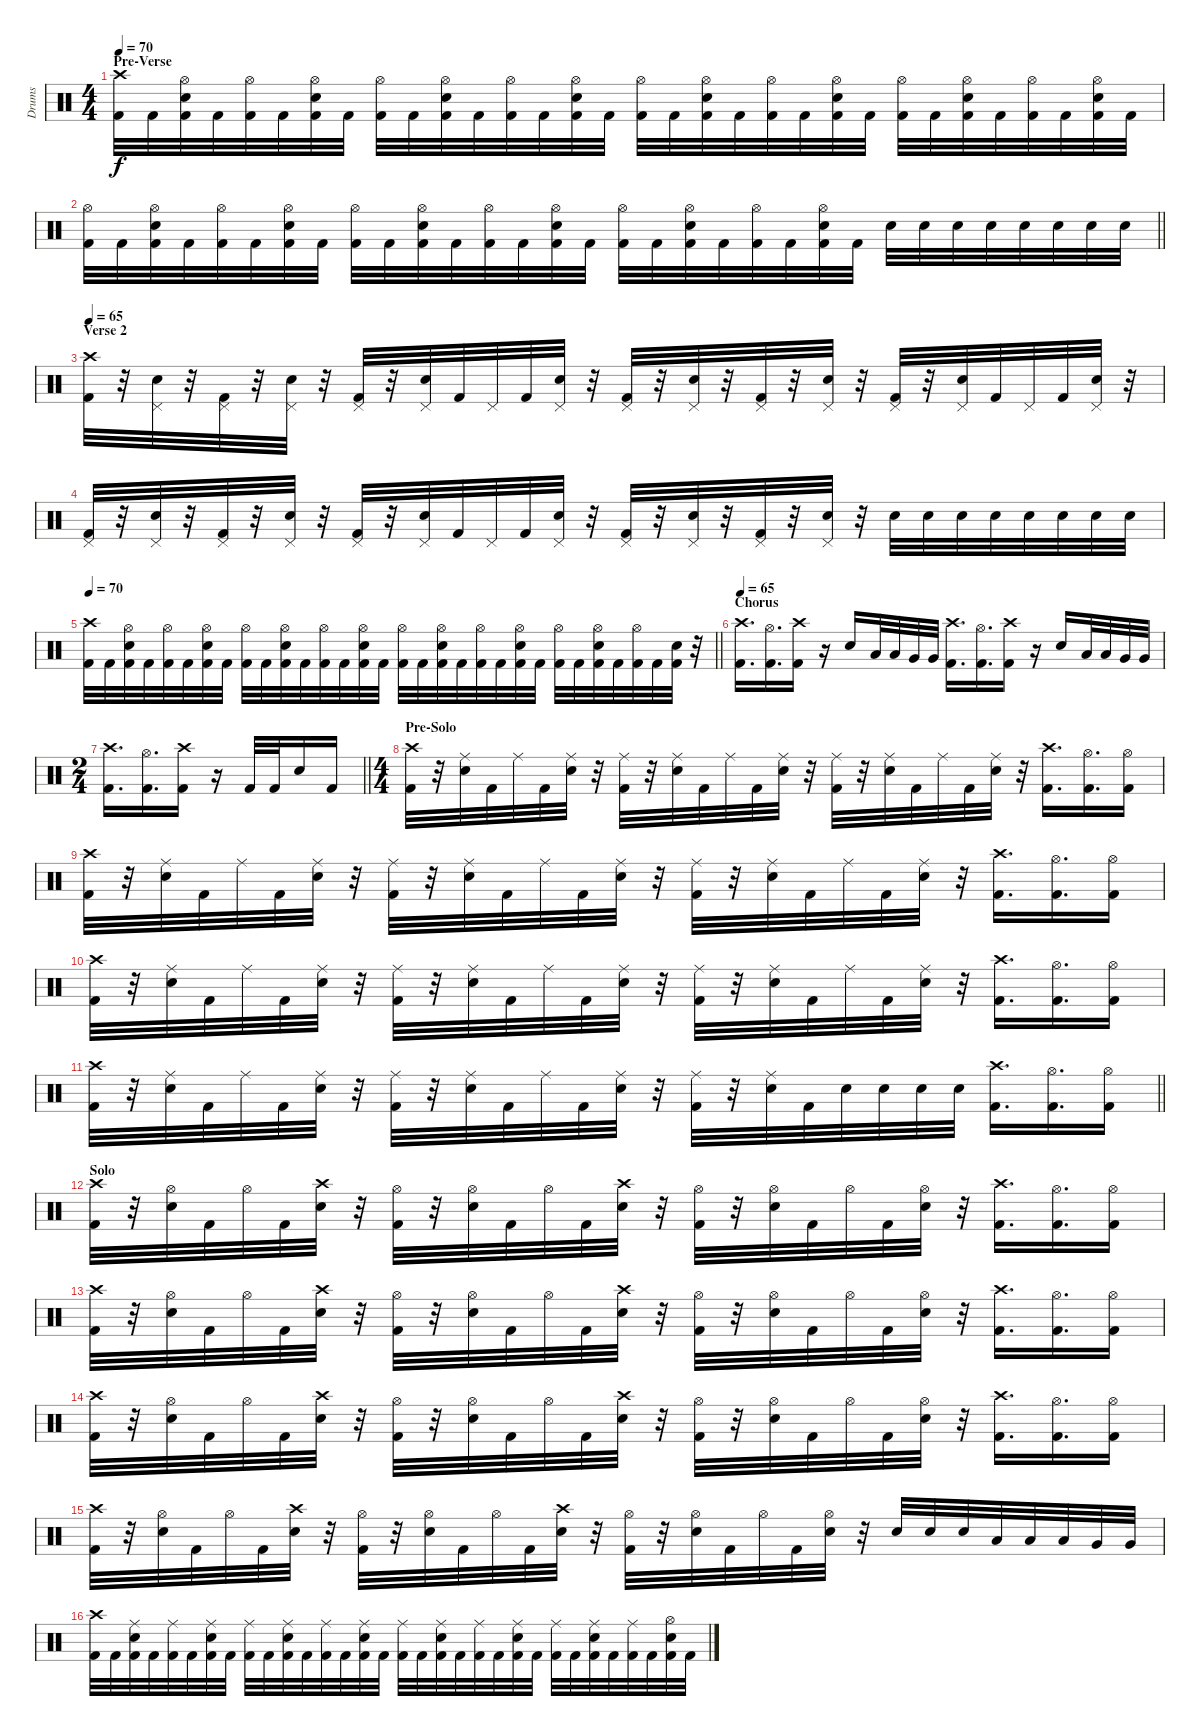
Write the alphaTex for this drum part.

\track ("Drums" "Drums") {instrument percussion}
\staff {score}
\articulation defaults
\ts (4 4)
\section ("" "Pre-Verse")
\tempo 70
\clef neutral
\ks c
("Crash high (hit)" "Kick (hit) 2").32{dy f} "Kick (hit) 2".32 ("Hi-Hat (open)" "Snare (hit) 2" "Kick (hit) 2").32 "Kick (hit) 2".32 ("Hi-Hat (open)" "Kick (hit) 2").32 "Kick (hit) 2".32 ("Hi-Hat (open)" "Snare (hit) 2" "Kick (hit) 2").32 "Kick (hit) 2".32 ("Hi-Hat (open)" "Kick (hit) 2").32 "Kick (hit) 2".32 ("Hi-Hat (open)" "Snare (hit) 2" "Kick (hit) 2").32 "Kick (hit) 2".32 ("Hi-Hat (open)" "Kick (hit) 2").32 "Kick (hit) 2".32 ("Hi-Hat (open)" "Snare (hit) 2" "Kick (hit) 2").32 "Kick (hit) 2".32 ("Hi-Hat (open)" "Kick (hit) 2").32 "Kick (hit) 2".32 ("Hi-Hat (open)" "Snare (hit) 2" "Kick (hit) 2").32 "Kick (hit) 2".32 ("Hi-Hat (open)" "Kick (hit) 2").32 "Kick (hit) 2".32 ("Hi-Hat (open)" "Snare (hit) 2" "Kick (hit) 2").32 "Kick (hit) 2".32 ("Hi-Hat (open)" "Kick (hit) 2").32 "Kick (hit) 2".32 ("Hi-Hat (open)" "Snare (hit) 2" "Kick (hit) 2").32 "Kick (hit) 2".32 ("Hi-Hat (open)" "Kick (hit) 2").32 "Kick (hit) 2".32 ("Hi-Hat (open)" "Snare (hit) 2" "Kick (hit) 2").32 "Kick (hit) 2".32 |
\barLineRight lightlight
("Hi-Hat (open)" "Kick (hit) 2").32 "Kick (hit) 2".32 ("Hi-Hat (open)" "Snare (hit) 2" "Kick (hit) 2").32 "Kick (hit) 2".32 ("Hi-Hat (open)" "Kick (hit) 2").32 "Kick (hit) 2".32 ("Hi-Hat (open)" "Snare (hit) 2" "Kick (hit) 2").32 "Kick (hit) 2".32 ("Hi-Hat (open)" "Kick (hit) 2").32 "Kick (hit) 2".32 ("Hi-Hat (open)" "Snare (hit) 2" "Kick (hit) 2").32 "Kick (hit) 2".32 ("Hi-Hat (open)" "Kick (hit) 2").32 "Kick (hit) 2".32 ("Hi-Hat (open)" "Snare (hit) 2" "Kick (hit) 2").32 "Kick (hit) 2".32 ("Hi-Hat (open)" "Kick (hit) 2").32 "Kick (hit) 2".32 ("Hi-Hat (open)" "Snare (hit) 2" "Kick (hit) 2").32 "Kick (hit) 2".32 ("Hi-Hat (open)" "Kick (hit) 2").32 "Kick (hit) 2".32 ("Hi-Hat (open)" "Snare (hit) 2" "Kick (hit) 2").32 "Kick (hit) 2".32 "Snare (hit) 2".32 "Snare (hit) 2".32 "Snare (hit) 2".32 "Snare (hit) 2".32 "Snare (hit) 2".32 "Snare (hit) 2".32 "Snare (hit) 2".32 "Snare (hit) 2".32 |
\section ("" "Verse 2")
\tempo 65
("Crash high (hit)" "Kick (hit) 2").32 r.32 ("Pedal Hi-Hat (hit)" "Snare (hit) 2").32 r.32 ("Pedal Hi-Hat (hit)" "Kick (hit) 2").32 r.32 ("Pedal Hi-Hat (hit)" "Snare (hit) 2").32 r.32 ("Pedal Hi-Hat (hit)" "Kick (hit) 2").32 r.32 ("Pedal Hi-Hat (hit)" "Snare (hit) 2").32 "Kick (hit) 2".32 "Pedal Hi-Hat (hit)".32 "Kick (hit) 2".32 ("Pedal Hi-Hat (hit)" "Snare (hit) 2").32 r.32 ("Pedal Hi-Hat (hit)" "Kick (hit) 2").32 r.32 ("Pedal Hi-Hat (hit)" "Snare (hit) 2").32 r.32 ("Pedal Hi-Hat (hit)" "Kick (hit) 2").32 r.32 ("Pedal Hi-Hat (hit)" "Snare (hit) 2").32 r.32 ("Pedal Hi-Hat (hit)" "Kick (hit) 2").32 r.32 ("Pedal Hi-Hat (hit)" "Snare (hit) 2").32 "Kick (hit) 2".32 "Pedal Hi-Hat (hit)".32 "Kick (hit) 2".32 ("Pedal Hi-Hat (hit)" "Snare (hit) 2").32 r.32 |
("Pedal Hi-Hat (hit)" "Kick (hit) 2").32 r.32 ("Pedal Hi-Hat (hit)" "Snare (hit) 2").32 r.32 ("Pedal Hi-Hat (hit)" "Kick (hit) 2").32 r.32 ("Pedal Hi-Hat (hit)" "Snare (hit) 2").32 r.32 ("Pedal Hi-Hat (hit)" "Kick (hit) 2").32 r.32 ("Pedal Hi-Hat (hit)" "Snare (hit) 2").32 "Kick (hit) 2".32 "Pedal Hi-Hat (hit)".32 "Kick (hit) 2".32 ("Pedal Hi-Hat (hit)" "Snare (hit) 2").32 r.32 ("Pedal Hi-Hat (hit)" "Kick (hit) 2").32 r.32 ("Pedal Hi-Hat (hit)" "Snare (hit) 2").32 r.32 ("Pedal Hi-Hat (hit)" "Kick (hit) 2").32 r.32 ("Pedal Hi-Hat (hit)" "Snare (hit) 2").32 r.32 "Snare (hit) 2".32 "Snare (hit) 2".32 "Snare (hit) 2".32 "Snare (hit) 2".32 "Snare (hit) 2".32 "Snare (hit) 2".32 "Snare (hit) 2".32 "Snare (hit) 2".32 |
\tempo 70
\barLineRight lightlight
("Crash high (hit)" "Kick (hit) 2").32 "Kick (hit) 2".32 ("Hi-Hat (open)" "Snare (hit) 2" "Kick (hit) 2").32 "Kick (hit) 2".32 ("Hi-Hat (open)" "Kick (hit) 2").32 "Kick (hit) 2".32 ("Hi-Hat (open)" "Snare (hit) 2" "Kick (hit) 2").32 "Kick (hit) 2".32 ("Hi-Hat (open)" "Kick (hit) 2").32 "Kick (hit) 2".32 ("Hi-Hat (open)" "Snare (hit) 2" "Kick (hit) 2").32 "Kick (hit) 2".32 ("Hi-Hat (open)" "Kick (hit) 2").32 "Kick (hit) 2".32 ("Hi-Hat (open)" "Snare (hit) 2" "Kick (hit) 2").32 "Kick (hit) 2".32 ("Hi-Hat (open)" "Kick (hit) 2").32 "Kick (hit) 2".32 ("Hi-Hat (open)" "Snare (hit) 2" "Kick (hit) 2").32 "Kick (hit) 2".32 ("Hi-Hat (open)" "Kick (hit) 2").32 "Kick (hit) 2".32 ("Hi-Hat (open)" "Snare (hit) 2" "Kick (hit) 2").32 "Kick (hit) 2".32 ("Hi-Hat (open)" "Kick (hit) 2").32 "Kick (hit) 2".32 ("Hi-Hat (open)" "Snare (hit) 2" "Kick (hit) 2").32 "Kick (hit) 2".32 ("Hi-Hat (open)" "Kick (hit) 2").32 "Kick (hit) 2".32 ("Snare (hit) 2" "Kick (hit) 2").32 r.32 |
\section ("" "Chorus")
\tempo 65
("Crash high (hit)" "Kick (hit) 2").16{d} ("Hi-Hat (open)" "Kick (hit) 2").16{d} ("Crash high (hit)" "Kick (hit) 2").16 r.16 "Snare (hit) 2".16 "Low Tom (hit)".32 "Low Tom (hit)".32 "Very Low Tom (hit)".32 "Very Low Tom (hit)".32 ("Crash high (hit)" "Kick (hit) 2").16{d} ("Hi-Hat (open)" "Kick (hit) 2").16{d} ("Crash high (hit)" "Kick (hit) 2").16 r.16 "Snare (hit) 2".16 "Low Tom (hit)".32 "Low Tom (hit)".32 "Very Low Tom (hit)".32 "Very Low Tom (hit)".32 |
\ts (2 4)
\barLineRight lightlight
("Crash high (hit)" "Kick (hit) 2").16{d} ("Hi-Hat (open)" "Kick (hit) 2").16{d} ("Crash high (hit)" "Kick (hit) 2").16 r.16 "Kick (hit) 2".32 "Kick (hit) 2".32 "Snare (hit) 2".16 "Kick (hit) 2".16 |
\ts (4 4)
\section ("" "Pre-Solo")
("Crash high (hit)" "Kick (hit) 2").32 r.32 ("Ride (middle)" "Snare (hit) 2").32 "Kick (hit) 2".32 "Ride (middle)".32 "Kick (hit) 2".32 ("Ride (middle)" "Snare (hit) 2").32 r.32 ("Ride (middle)" "Kick (hit) 2").32 r.32 ("Ride (middle)" "Snare (hit) 2").32 "Kick (hit) 2".32 "Ride (middle)".32 "Kick (hit) 2".32 ("Ride (middle)" "Snare (hit) 2").32 r.32 ("Ride (middle)" "Kick (hit) 2").32 r.32 ("Ride (middle)" "Snare (hit) 2").32 "Kick (hit) 2".32 "Ride (middle)".32 "Kick (hit) 2".32 ("Ride (middle)" "Snare (hit) 2").32 r.32 ("Crash high (hit)" "Kick (hit) 2").16{d} ("Hi-Hat (open)" "Kick (hit) 2").16{d} ("Hi-Hat (open)" "Kick (hit) 2").16 |
("Crash high (hit)" "Kick (hit) 2").32 r.32 ("Ride (middle)" "Snare (hit) 2").32 "Kick (hit) 2".32 "Ride (middle)".32 "Kick (hit) 2".32 ("Ride (middle)" "Snare (hit) 2").32 r.32 ("Ride (middle)" "Kick (hit) 2").32 r.32 ("Ride (middle)" "Snare (hit) 2").32 "Kick (hit) 2".32 "Ride (middle)".32 "Kick (hit) 2".32 ("Ride (middle)" "Snare (hit) 2").32 r.32 ("Ride (middle)" "Kick (hit) 2").32 r.32 ("Ride (middle)" "Snare (hit) 2").32 "Kick (hit) 2".32 "Ride (middle)".32 "Kick (hit) 2".32 ("Ride (middle)" "Snare (hit) 2").32 r.32 ("Crash high (hit)" "Kick (hit) 2").16{d} ("Hi-Hat (open)" "Kick (hit) 2").16{d} ("Hi-Hat (open)" "Kick (hit) 2").16 |
("Crash high (hit)" "Kick (hit) 2").32 r.32 ("Ride (middle)" "Snare (hit) 2").32 "Kick (hit) 2".32 "Ride (middle)".32 "Kick (hit) 2".32 ("Ride (middle)" "Snare (hit) 2").32 r.32 ("Ride (middle)" "Kick (hit) 2").32 r.32 ("Ride (middle)" "Snare (hit) 2").32 "Kick (hit) 2".32 "Ride (middle)".32 "Kick (hit) 2".32 ("Ride (middle)" "Snare (hit) 2").32 r.32 ("Ride (middle)" "Kick (hit) 2").32 r.32 ("Ride (middle)" "Snare (hit) 2").32 "Kick (hit) 2".32 "Ride (middle)".32 "Kick (hit) 2".32 ("Ride (middle)" "Snare (hit) 2").32 r.32 ("Crash high (hit)" "Kick (hit) 2").16{d} ("Hi-Hat (open)" "Kick (hit) 2").16{d} ("Hi-Hat (open)" "Kick (hit) 2").16 |
\barLineRight lightlight
("Crash high (hit)" "Kick (hit) 2").32 r.32 ("Ride (middle)" "Snare (hit) 2").32 "Kick (hit) 2".32 "Ride (middle)".32 "Kick (hit) 2".32 ("Ride (middle)" "Snare (hit) 2").32 r.32 ("Ride (middle)" "Kick (hit) 2").32 r.32 ("Ride (middle)" "Snare (hit) 2").32 "Kick (hit) 2".32 "Ride (middle)".32 "Kick (hit) 2".32 ("Ride (middle)" "Snare (hit) 2").32 r.32 ("Ride (middle)" "Kick (hit) 2").32 r.32 ("Ride (middle)" "Snare (hit) 2").32 "Kick (hit) 2".32 "Snare (hit) 2".32 "Snare (hit) 2".32 "Snare (hit) 2".32 "Snare (hit) 2".32 ("Crash high (hit)" "Kick (hit) 2").16{d} ("Hi-Hat (open)" "Kick (hit) 2").16{d} ("Hi-Hat (open)" "Kick (hit) 2").16 |
\section ("" "Solo")
("Crash high (hit)" "Kick (hit) 2").32 r.32 ("Hi-Hat (open)" "Snare (hit) 2").32 "Kick (hit) 2".32 "Hi-Hat (open)".32 "Kick (hit) 2".32 ("Crash high (hit)" "Snare (hit) 2").32 r.32 ("Hi-Hat (open)" "Kick (hit) 2").32 r.32 ("Hi-Hat (open)" "Snare (hit) 2").32 "Kick (hit) 2".32 "Hi-Hat (open)".32 "Kick (hit) 2".32 ("Crash high (hit)" "Snare (hit) 2").32 r.32 ("Hi-Hat (open)" "Kick (hit) 2").32 r.32 ("Hi-Hat (open)" "Snare (hit) 2").32 "Kick (hit) 2".32 "Hi-Hat (open)".32 "Kick (hit) 2".32 ("Hi-Hat (open)" "Snare (hit) 2").32 r.32 ("Crash high (hit)" "Kick (hit) 2").16{d} ("Hi-Hat (open)" "Kick (hit) 2").16{d} ("Hi-Hat (open)" "Kick (hit) 2").16 |
("Crash high (hit)" "Kick (hit) 2").32 r.32 ("Hi-Hat (open)" "Snare (hit) 2").32 "Kick (hit) 2".32 "Hi-Hat (open)".32 "Kick (hit) 2".32 ("Crash high (hit)" "Snare (hit) 2").32 r.32 ("Hi-Hat (open)" "Kick (hit) 2").32 r.32 ("Hi-Hat (open)" "Snare (hit) 2").32 "Kick (hit) 2".32 "Hi-Hat (open)".32 "Kick (hit) 2".32 ("Crash high (hit)" "Snare (hit) 2").32 r.32 ("Hi-Hat (open)" "Kick (hit) 2").32 r.32 ("Hi-Hat (open)" "Snare (hit) 2").32 "Kick (hit) 2".32 "Hi-Hat (open)".32 "Kick (hit) 2".32 ("Hi-Hat (open)" "Snare (hit) 2").32 r.32 ("Crash high (hit)" "Kick (hit) 2").16{d} ("Hi-Hat (open)" "Kick (hit) 2").16{d} ("Hi-Hat (open)" "Kick (hit) 2").16 |
("Crash high (hit)" "Kick (hit) 2").32 r.32 ("Hi-Hat (open)" "Snare (hit) 2").32 "Kick (hit) 2".32 "Hi-Hat (open)".32 "Kick (hit) 2".32 ("Crash high (hit)" "Snare (hit) 2").32 r.32 ("Hi-Hat (open)" "Kick (hit) 2").32 r.32 ("Hi-Hat (open)" "Snare (hit) 2").32 "Kick (hit) 2".32 "Hi-Hat (open)".32 "Kick (hit) 2".32 ("Crash high (hit)" "Snare (hit) 2").32 r.32 ("Hi-Hat (open)" "Kick (hit) 2").32 r.32 ("Hi-Hat (open)" "Snare (hit) 2").32 "Kick (hit) 2".32 "Hi-Hat (open)".32 "Kick (hit) 2".32 ("Hi-Hat (open)" "Snare (hit) 2").32 r.32 ("Crash high (hit)" "Kick (hit) 2").16{d} ("Hi-Hat (open)" "Kick (hit) 2").16{d} ("Hi-Hat (open)" "Kick (hit) 2").16 |
("Crash high (hit)" "Kick (hit) 2").32 r.32 ("Hi-Hat (open)" "Snare (hit) 2").32 "Kick (hit) 2".32 "Hi-Hat (open)".32 "Kick (hit) 2".32 ("Crash high (hit)" "Snare (hit) 2").32 r.32 ("Hi-Hat (open)" "Kick (hit) 2").32 r.32 ("Hi-Hat (open)" "Snare (hit) 2").32 "Kick (hit) 2".32 "Hi-Hat (open)".32 "Kick (hit) 2".32 ("Crash high (hit)" "Snare (hit) 2").32 r.32 ("Hi-Hat (open)" "Kick (hit) 2").32 r.32 ("Hi-Hat (open)" "Snare (hit) 2").32 "Kick (hit) 2".32 "Hi-Hat (open)".32 "Kick (hit) 2".32 ("Hi-Hat (open)" "Snare (hit) 2").32 r.32 "Snare (hit) 2".32 "Snare (hit) 2".32 "Snare (hit) 2".32 "Low Tom (hit)".32 "Low Tom (hit)".32 "Low Tom (hit)".32 "Very Low Tom (hit)".32 "Very Low Tom (hit)".32 |
("Crash high (hit)" "Kick (hit) 2").32 "Kick (hit) 2".32 ("Ride (middle)" "Snare (hit) 2" "Kick (hit) 2").32 "Kick (hit) 2".32 ("Ride (middle)" "Kick (hit) 2").32 "Kick (hit) 2".32 ("Ride (middle)" "Snare (hit) 2" "Kick (hit) 2").32 "Kick (hit) 2".32 ("Ride (middle)" "Kick (hit) 2").32 "Kick (hit) 2".32 ("Ride (middle)" "Snare (hit) 2" "Kick (hit) 2").32 "Kick (hit) 2".32 ("Ride (middle)" "Kick (hit) 2").32 "Kick (hit) 2".32 ("Ride (middle)" "Snare (hit) 2" "Kick (hit) 2").32 "Kick (hit) 2".32 ("Ride (middle)" "Kick (hit) 2").32 "Kick (hit) 2".32 ("Ride (middle)" "Snare (hit) 2" "Kick (hit) 2").32 "Kick (hit) 2".32 ("Ride (middle)" "Kick (hit) 2").32 "Kick (hit) 2".32 ("Ride (middle)" "Snare (hit) 2" "Kick (hit) 2").32 "Kick (hit) 2".32 ("Ride (middle)" "Kick (hit) 2").32 "Kick (hit) 2".32 ("Ride (middle)" "Snare (hit) 2" "Kick (hit) 2").32 "Kick (hit) 2".32 ("Ride (middle)" "Kick (hit) 2").32 "Kick (hit) 2".32 ("Hi-Hat (open)" "Snare (hit) 2" "Kick (hit) 2").32 "Kick (hit) 2".32
